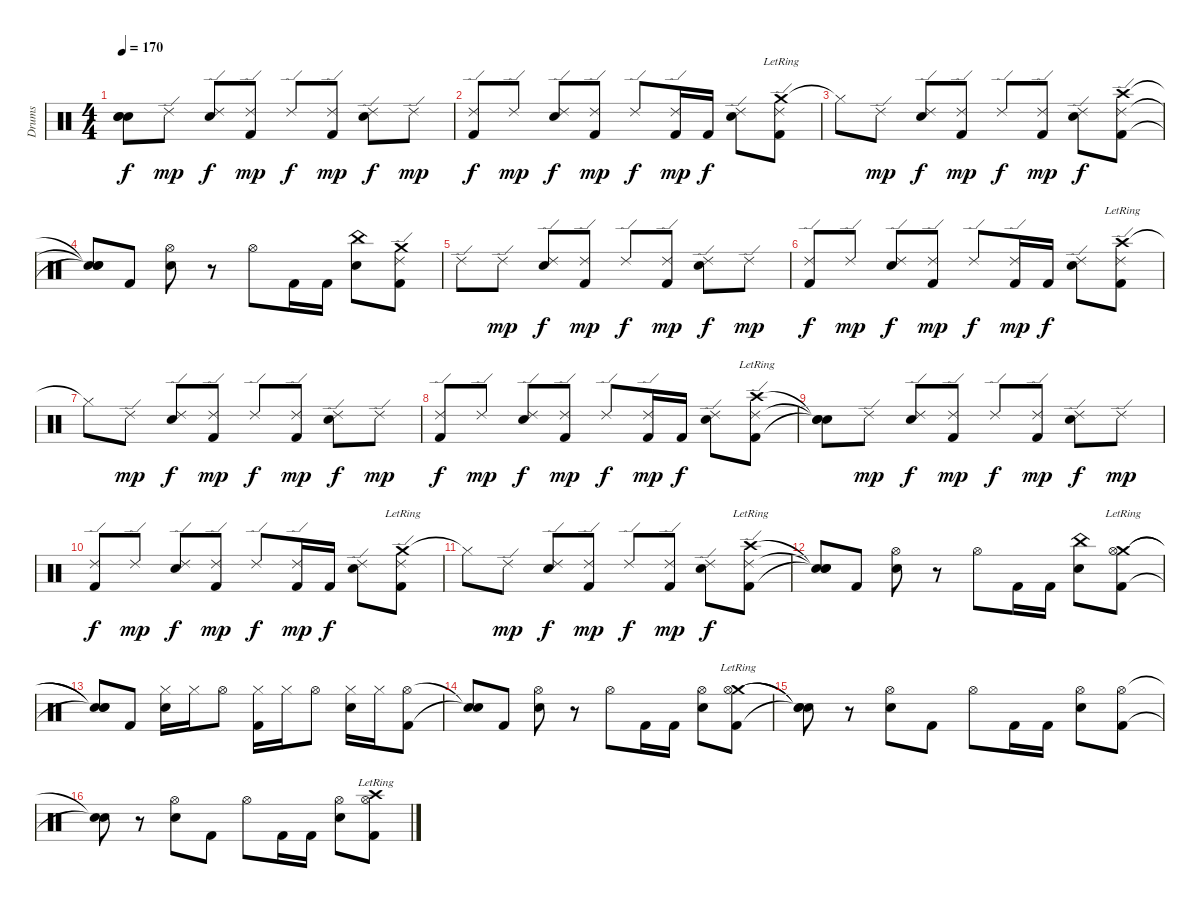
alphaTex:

\track ("Drums" "Drums") {instrument percussion}
\staff {score}
\articulation defaults
\ts (4 4)
\tempo 170
\clef neutral
\ks c
("Snare (hit)"{t} "Snare (hit)"{t} "Snare (hit)"{t}).8{dy f} "Ride (edge) 2".8{dy mp} ("Electric Snare (hit)" "Ride (edge) 2").8{dy f} ("Kick (hit) 2" "Ride (edge) 2").8{dy mp} "Ride (edge) 2".8{dy f} ("Kick (hit) 2" "Ride (edge) 2").8{dy mp} ("Electric Snare (hit)" "Ride (edge) 2").8{dy f} "Ride (edge) 2".8{dy mp} |
("Kick (hit) 2" "Ride (edge) 2").8{dy f} "Ride (edge) 2".8{dy mp} ("Electric Snare (hit)" "Ride (edge) 2").8{dy f} ("Kick (hit) 2" "Ride (edge) 2").8{dy mp} "Ride (edge) 2".8{dy f} ("Kick (hit) 2" "Ride (edge) 2").16{dy mp} "Kick (hit) 2".16{dy f} ("Electric Snare (hit)" "Ride (edge) 2").8 ("Crash medium (hit)"{lr} "Kick (hit) 2" "Ride (edge) 2").8 |
"Hi-Hat (closed)"{t}.8 "Ride (edge) 2".8{dy mp} ("Electric Snare (hit)" "Ride (edge) 2").8{dy f} ("Kick (hit) 2" "Ride (edge) 2").8{dy mp} "Ride (edge) 2".8{dy f} ("Kick (hit) 2" "Ride (edge) 2").8{dy mp} ("Electric Snare (hit)" "Ride (edge) 2").8{dy f} ("Crash high (hit)" "Kick (hit) 2" "Ride (edge) 2").8 |
("Snare (hit)"{t} "Snare (hit)"{t} "Snare (hit)"{t}).8 "Kick (hit) 2".8 ("Electric Snare (hit)" "Hi-Hat (open)").8 r.8 "Hi-Hat (open)".8 "Kick (hit) 2".16 "Kick (hit) 2".16 ("China (hit)" "Electric Snare (hit)").8 ("Crash medium (hit)" "Kick (hit) 2" "Ride (edge) 2").8 |
"Ride (edge) 2".8 "Ride (edge) 2".8{dy mp} ("Electric Snare (hit)" "Ride (edge) 2").8{dy f} ("Kick (hit) 2" "Ride (edge) 2").8{dy mp} "Ride (edge) 2".8{dy f} ("Kick (hit) 2" "Ride (edge) 2").8{dy mp} ("Electric Snare (hit)" "Ride (edge) 2").8{dy f} "Ride (edge) 2".8{dy mp} |
("Kick (hit) 2" "Ride (edge) 2").8{dy f} "Ride (edge) 2".8{dy mp} ("Electric Snare (hit)" "Ride (edge) 2").8{dy f} ("Kick (hit) 2" "Ride (edge) 2").8{dy mp} "Ride (edge) 2".8{dy f} ("Kick (hit) 2" "Ride (edge) 2").16{dy mp} "Kick (hit) 2".16{dy f} ("Electric Snare (hit)" "Ride (edge) 2").8 ("Crash high (hit)"{lr} "Kick (hit) 2" "Ride (edge) 2").8 |
"Hi-Hat (closed)"{t}.8 "Ride (edge) 2".8{dy mp} ("Electric Snare (hit)" "Ride (edge) 2").8{dy f} ("Kick (hit) 2" "Ride (edge) 2").8{dy mp} "Ride (edge) 2".8{dy f} ("Kick (hit) 2" "Ride (edge) 2").8{dy mp} ("Electric Snare (hit)" "Ride (edge) 2").8{dy f} "Ride (edge) 2".8{dy mp} |
("Kick (hit) 2" "Ride (edge) 2").8{dy f} "Ride (edge) 2".8{dy mp} ("Electric Snare (hit)" "Ride (edge) 2").8{dy f} ("Kick (hit) 2" "Ride (edge) 2").8{dy mp} "Ride (edge) 2".8{dy f} ("Kick (hit) 2" "Ride (edge) 2").16{dy mp} "Kick (hit) 2".16{dy f} ("Electric Snare (hit)" "Ride (edge) 2").8 ("Crash high (hit)"{lr} "Kick (hit) 2" "Ride (edge) 2").8 |
("Snare (hit)"{t} "Snare (hit)"{t} "Snare (hit)"{t}).8 "Ride (edge) 2".8{dy mp} ("Electric Snare (hit)" "Ride (edge) 2").8{dy f} ("Kick (hit) 2" "Ride (edge) 2").8{dy mp} "Ride (edge) 2".8{dy f} ("Kick (hit) 2" "Ride (edge) 2").8{dy mp} ("Electric Snare (hit)" "Ride (edge) 2").8{dy f} "Ride (edge) 2".8{dy mp} |
("Kick (hit) 2" "Ride (edge) 2").8{dy f} "Ride (edge) 2".8{dy mp} ("Electric Snare (hit)" "Ride (edge) 2").8{dy f} ("Kick (hit) 2" "Ride (edge) 2").8{dy mp} "Ride (edge) 2".8{dy f} ("Kick (hit) 2" "Ride (edge) 2").16{dy mp} "Kick (hit) 2".16{dy f} ("Electric Snare (hit)" "Ride (edge) 2").8 ("Crash medium (hit)"{lr} "Kick (hit) 2" "Ride (edge) 2").8 |
"Hi-Hat (closed)"{t}.8 "Ride (edge) 2".8{dy mp} ("Electric Snare (hit)" "Ride (edge) 2").8{dy f} ("Kick (hit) 2" "Ride (edge) 2").8{dy mp} "Ride (edge) 2".8{dy f} ("Kick (hit) 2" "Ride (edge) 2").8{dy mp} ("Electric Snare (hit)" "Ride (edge) 2").8{dy f} ("Crash high (hit)"{lr} "Kick (hit) 2" "Ride (edge) 2").8 |
("Snare (hit)"{t} "Snare (hit)"{t} "Snare (hit)"{t}).8 "Kick (hit) 2".8 ("Electric Snare (hit)" "Hi-Hat (open)").8 r.8 "Hi-Hat (open)".8 "Kick (hit) 2".16 "Kick (hit) 2".16 ("China (hit)" "Electric Snare (hit)").8 ("Crash medium (hit)"{lr} "Kick (hit) 2" "Hi-Hat (open)").8 |
("Snare (hit)"{t} "Snare (hit)"{t} "Snare (hit)"{t}).8 "Kick (hit) 2".8 ("Electric Snare (hit)" "Hi-Hat (closed)").16 "Hi-Hat (closed)".16 "Hi-Hat (open)".8 ("Kick (hit) 2" "Hi-Hat (closed)").16 "Hi-Hat (closed)".16 "Hi-Hat (open)".8 ("Electric Snare (hit)" "Hi-Hat (closed)").16 "Hi-Hat (closed)".16 ("Kick (hit) 2" "Hi-Hat (open)").8 |
("Snare (hit)"{t} "Snare (hit)"{t}).8 "Kick (hit) 2".8 ("Electric Snare (hit)" "Hi-Hat (open)").8 r.8 "Hi-Hat (open)".8 "Kick (hit) 2".16 "Kick (hit) 2".16 ("Electric Snare (hit)" "Hi-Hat (open)").8 ("Crash medium (hit)"{lr} "Kick (hit) 2" "Hi-Hat (open)").8 |
("Snare (hit)"{t} "Snare (hit)"{t} "Snare (hit)"{t}).8 r.8 ("Electric Snare (hit)" "Hi-Hat (open)").8 "Kick (hit) 2".8 "Hi-Hat (open)".8 "Kick (hit) 2".16 "Kick (hit) 2".16 ("Electric Snare (hit)" "Hi-Hat (open)").8 ("Kick (hit) 2" "Hi-Hat (open)").8 |
("Snare (hit)"{t} "Snare (hit)"{t}).8 r.8 ("Electric Snare (hit)" "Hi-Hat (open)").8 "Kick (hit) 2".8 "Hi-Hat (open)".8 "Kick (hit) 2".16 "Kick (hit) 2".16 ("Electric Snare (hit)" "Hi-Hat (open)").8 ("Crash high (hit)"{lr} "Kick (hit) 2" "Hi-Hat (open)").8
